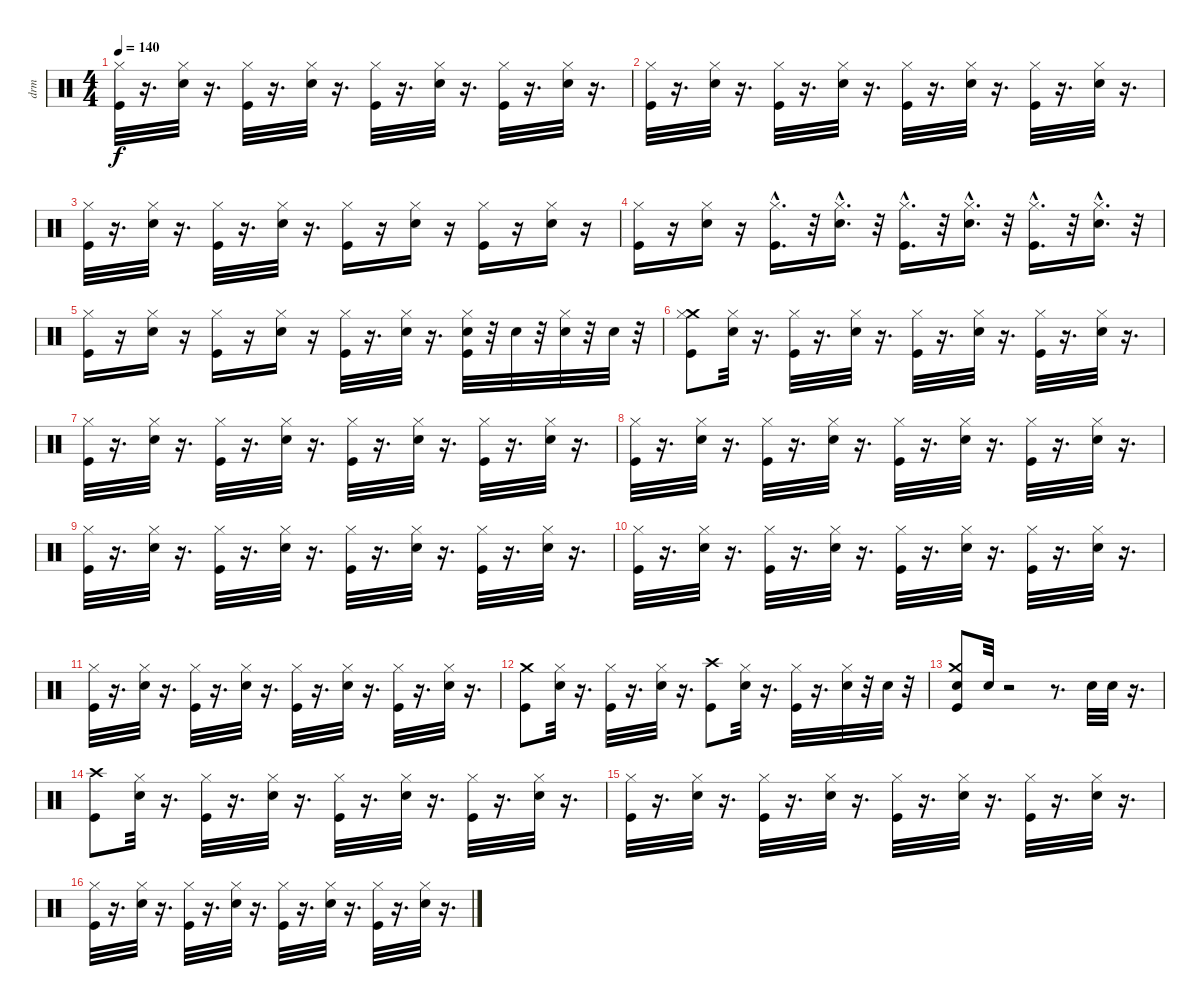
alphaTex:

\track ("drm" "drm") {instrument percussion}
\staff {score}
\articulation defaults
\ts (4 4)
\tempo 140
\clef neutral
\ks c
("Kick (hit)" "Hi-Hat (closed)").32{dy f} r.16{d} ("Snare (hit) 2" "Hi-Hat (closed)").32 r.16{d} ("Kick (hit)" "Hi-Hat (closed)").32 r.16{d} ("Snare (hit) 2" "Hi-Hat (closed)").32 r.16{d} ("Kick (hit)" "Hi-Hat (closed)").32 r.16{d} ("Snare (hit) 2" "Hi-Hat (closed)").32 r.16{d} ("Kick (hit)" "Hi-Hat (closed)").32 r.16{d} ("Snare (hit) 2" "Hi-Hat (closed)").32 r.16{d} |
("Kick (hit)" "Hi-Hat (closed)").32 r.16{d} ("Snare (hit) 2" "Hi-Hat (closed)").32 r.16{d} ("Kick (hit)" "Hi-Hat (closed)").32 r.16{d} ("Snare (hit) 2" "Hi-Hat (closed)").32 r.16{d} ("Kick (hit)" "Hi-Hat (closed)").32 r.16{d} ("Snare (hit) 2" "Hi-Hat (closed)").32 r.16{d} ("Kick (hit)" "Hi-Hat (closed)").32 r.16{d} ("Snare (hit) 2" "Hi-Hat (closed)").32 r.16{d} |
("Kick (hit)" "Hi-Hat (closed)").32 r.16{d} ("Snare (hit) 2" "Hi-Hat (closed)").32 r.16{d} ("Kick (hit)" "Hi-Hat (closed)").32 r.16{d} ("Snare (hit) 2" "Hi-Hat (closed)").32 r.16{d} ("Kick (hit)" "Hi-Hat (closed)").16 r.16 ("Snare (hit) 2" "Hi-Hat (closed)").16 r.16 ("Kick (hit)" "Hi-Hat (closed)").16 r.16 ("Snare (hit) 2" "Hi-Hat (closed)").16 r.16 |
("Kick (hit)" "Hi-Hat (closed)").16 r.16 ("Hi-Hat (closed)" "Snare (hit) 2").16 r.16 ("Kick (hit)"{hac} "Hi-Hat (closed)"{hac}).16{d} r.32 ("Snare (hit) 2" "Hi-Hat (closed)"{hac}).16{d} r.32 ("Kick (hit)"{hac} "Hi-Hat (closed)"{hac}).16{d} r.32 ("Hi-Hat (closed)" "Snare (hit) 2"{hac}).16{d} r.32 ("Kick (hit)" "Hi-Hat (closed)"{hac}).16{d} r.32 ("Hi-Hat (closed)" "Snare (hit) 2"{hac}).16{d} r.32 |
("Kick (hit)" "Hi-Hat (closed)").16 r.16 ("Snare (hit) 2" "Hi-Hat (closed)").16 r.16 ("Kick (hit)" "Hi-Hat (closed)").16 r.16 ("Snare (hit) 2" "Hi-Hat (closed)").16 r.16 ("Hi-Hat (closed)" "Kick (hit)").32 r.16{d} ("Hi-Hat (closed)" "Snare (hit) 2").32 r.16{d} ("Snare (hit) 2" "Hi-Hat (closed)" "Kick (hit)").32 r.32 "Snare (hit) 2".32 r.32 ("Hi-Hat (closed)" "Snare (hit) 2").32 r.32 "Snare (hit) 2".32 r.32 |
("Crash medium (hit)" "Kick (hit)" "Hi-Hat (closed)").8 ("Snare (hit) 2" "Hi-Hat (closed)").32 r.16{d} ("Kick (hit)" "Hi-Hat (closed)").32 r.16{d} ("Snare (hit) 2" "Hi-Hat (closed)").32 r.16{d} ("Kick (hit)" "Hi-Hat (closed)").32 r.16{d} ("Snare (hit) 2" "Hi-Hat (closed)").32 r.16{d} ("Kick (hit)" "Hi-Hat (closed)").32 r.16{d} ("Snare (hit) 2" "Hi-Hat (closed)").32 r.16{d} |
("Kick (hit)" "Hi-Hat (closed)").32 r.16{d} ("Snare (hit) 2" "Hi-Hat (closed)").32 r.16{d} ("Kick (hit)" "Hi-Hat (closed)").32 r.16{d} ("Snare (hit) 2" "Hi-Hat (closed)").32 r.16{d} ("Kick (hit)" "Hi-Hat (closed)").32 r.16{d} ("Snare (hit) 2" "Hi-Hat (closed)").32 r.16{d} ("Kick (hit)" "Hi-Hat (closed)").32 r.16{d} ("Snare (hit) 2" "Hi-Hat (closed)").32 r.16{d} |
("Kick (hit)" "Hi-Hat (closed)").32 r.16{d} ("Snare (hit) 2" "Hi-Hat (closed)").32 r.16{d} ("Kick (hit)" "Hi-Hat (closed)").32 r.16{d} ("Snare (hit) 2" "Hi-Hat (closed)").32 r.16{d} ("Kick (hit)" "Hi-Hat (closed)").32 r.16{d} ("Snare (hit) 2" "Hi-Hat (closed)").32 r.16{d} ("Kick (hit)" "Hi-Hat (closed)").32 r.16{d} ("Snare (hit) 2" "Hi-Hat (closed)").32 r.16{d} |
("Kick (hit)" "Hi-Hat (closed)").32 r.16{d} ("Snare (hit) 2" "Hi-Hat (closed)").32 r.16{d} ("Kick (hit)" "Hi-Hat (closed)").32 r.16{d} ("Snare (hit) 2" "Hi-Hat (closed)").32 r.16{d} ("Kick (hit)" "Hi-Hat (closed)").32 r.16{d} ("Snare (hit) 2" "Hi-Hat (closed)").32 r.16{d} ("Kick (hit)" "Hi-Hat (closed)").32 r.16{d} ("Snare (hit) 2" "Hi-Hat (closed)").32 r.16{d} |
("Kick (hit)" "Hi-Hat (closed)").32 r.16{d} ("Snare (hit) 2" "Hi-Hat (closed)").32 r.16{d} ("Kick (hit)" "Hi-Hat (closed)").32 r.16{d} ("Snare (hit) 2" "Hi-Hat (closed)").32 r.16{d} ("Kick (hit)" "Hi-Hat (closed)").32 r.16{d} ("Snare (hit) 2" "Hi-Hat (closed)").32 r.16{d} ("Kick (hit)" "Hi-Hat (closed)").32 r.16{d} ("Snare (hit) 2" "Hi-Hat (closed)").32 r.16{d} |
("Kick (hit)" "Hi-Hat (closed)").32 r.16{d} ("Snare (hit) 2" "Hi-Hat (closed)").32 r.16{d} ("Kick (hit)" "Hi-Hat (closed)").32 r.16{d} ("Snare (hit) 2" "Hi-Hat (closed)").32 r.16{d} ("Kick (hit)" "Hi-Hat (closed)").32 r.16{d} ("Snare (hit) 2" "Hi-Hat (closed)").32 r.16{d} ("Kick (hit)" "Hi-Hat (closed)").32 r.16{d} ("Snare (hit) 2" "Hi-Hat (closed)").32 r.16{d} |
("Crash medium (hit)" "Kick (hit)").8 ("Snare (hit) 2" "Hi-Hat (closed)").32 r.16{d} ("Kick (hit)" "Hi-Hat (closed)").32 r.16{d} ("Snare (hit) 2" "Hi-Hat (closed)").32 r.16{d} ("Crash high (hit)" "Kick (hit)").8 ("Snare (hit) 2" "Hi-Hat (closed)").32 r.16{d} ("Kick (hit)" "Hi-Hat (closed)").32 r.16{d} ("Snare (hit) 2" "Hi-Hat (closed)").32 r.32 "Snare (hit) 2".32 r.32 |
("Electric Snare (hit)" "Crash medium (hit)" "Kick (hit)").8 "Electric Snare (hit)".32 r.2 r.8{d} "Electric Snare (hit)".32 "Electric Snare (hit)".32 r.16{d} |
("Crash high (hit)" "Kick (hit)").8 ("Snare (hit) 2" "Hi-Hat (closed)").32 r.16{d} ("Kick (hit)" "Hi-Hat (closed)").32 r.16{d} ("Snare (hit) 2" "Hi-Hat (closed)").32 r.16{d} ("Kick (hit)" "Hi-Hat (closed)").32 r.16{d} ("Snare (hit) 2" "Hi-Hat (closed)").32 r.16{d} ("Kick (hit)" "Hi-Hat (closed)").32 r.16{d} ("Snare (hit) 2" "Hi-Hat (closed)").32 r.16{d} |
("Kick (hit)" "Hi-Hat (closed)").32 r.16{d} ("Snare (hit) 2" "Hi-Hat (closed)").32 r.16{d} ("Kick (hit)" "Hi-Hat (closed)").32 r.16{d} ("Snare (hit) 2" "Hi-Hat (closed)").32 r.16{d} ("Kick (hit)" "Hi-Hat (closed)").32 r.16{d} ("Snare (hit) 2" "Hi-Hat (closed)").32 r.16{d} ("Kick (hit)" "Hi-Hat (closed)").32 r.16{d} ("Snare (hit) 2" "Hi-Hat (closed)").32 r.16{d} |
("Kick (hit)" "Hi-Hat (closed)").32 r.16{d} ("Snare (hit) 2" "Hi-Hat (closed)").32 r.16{d} ("Kick (hit)" "Hi-Hat (closed)").32 r.16{d} ("Snare (hit) 2" "Hi-Hat (closed)").32 r.16{d} ("Kick (hit)" "Hi-Hat (closed)").32 r.16{d} ("Snare (hit) 2" "Hi-Hat (closed)").32 r.16{d} ("Kick (hit)" "Hi-Hat (closed)").32 r.16{d} ("Snare (hit) 2" "Hi-Hat (closed)").32 r.16{d}
